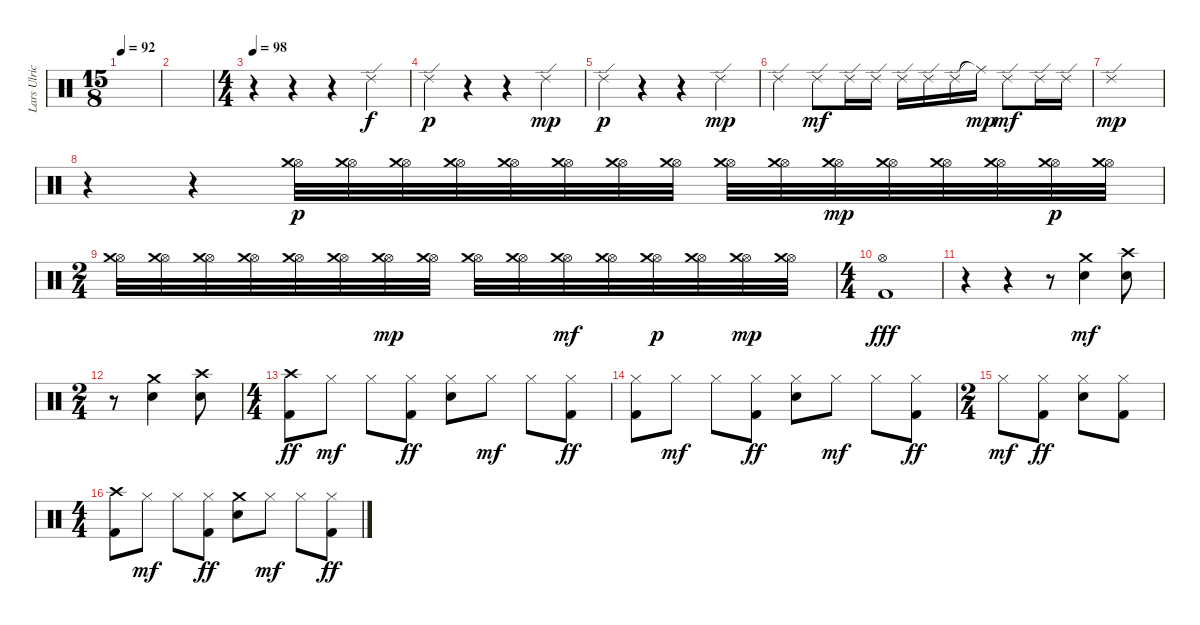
\track ("Lars Ulrich" "Lars Ulric") {instrument percussion}
\staff {score}
\articulation defaults
\ts (15 8)
\tempo 92
\clef neutral
\ks c
|
|
\ts (4 4)
\tempo 98
r.4 r.4 r.4 "Ride (edge) 2".4 |
"Ride (edge) 2".4{dy p} r.4 r.4 "Ride (edge) 2".4{dy mp} |
"Ride (edge) 2".4{dy p} r.4 r.4 "Ride (edge) 2".4{dy mp} |
"Ride (edge) 2".4 "Ride (edge) 2".8{dy mf} "Ride (edge) 2".16 "Ride (edge) 2".16 "Ride (edge) 2".16 "Ride (edge) 2".16 "Ride (edge) 2".16 "Ride (middle)"{t}.16{dy mp} "Ride (edge) 2".8{dy mf} "Ride (edge) 2".16 "Ride (edge) 2".16 |
"Ride (edge) 2".1{dy mp} |
r.4 r.4 ("Hi-Hat (open)" "Crash medium (hit)").32{dy p} ("Hi-Hat (open)" "Crash medium (hit)").32 ("Hi-Hat (open)" "Crash medium (hit)").32 ("Hi-Hat (open)" "Crash medium (hit)").32 ("Hi-Hat (open)" "Crash medium (hit)").32 ("Hi-Hat (open)" "Crash medium (hit)").32 ("Hi-Hat (open)" "Crash medium (hit)").32 ("Hi-Hat (open)" "Crash medium (hit)").32 ("Hi-Hat (open)" "Crash medium (hit)").32 ("Hi-Hat (open)" "Crash medium (hit)").32 ("Hi-Hat (open)" "Crash medium (hit)").32{dy mp} ("Hi-Hat (open)" "Crash medium (hit)").32 ("Hi-Hat (open)" "Crash medium (hit)").32 ("Hi-Hat (open)" "Crash medium (hit)").32 ("Hi-Hat (open)" "Crash medium (hit)").32{dy p} ("Hi-Hat (open)" "Crash medium (hit)").32 |
\ts (2 4)
("Hi-Hat (open)" "Crash medium (hit)").32 ("Hi-Hat (open)" "Crash medium (hit)").32 ("Hi-Hat (open)" "Crash medium (hit)").32 ("Hi-Hat (open)" "Crash medium (hit)").32 ("Hi-Hat (open)" "Crash medium (hit)").32 ("Hi-Hat (open)" "Crash medium (hit)").32 ("Hi-Hat (open)" "Crash medium (hit)").32{dy mp} ("Hi-Hat (open)" "Crash medium (hit)").32 ("Hi-Hat (open)" "Crash medium (hit)").32 ("Hi-Hat (open)" "Crash medium (hit)").32 ("Hi-Hat (open)" "Crash medium (hit)").32{dy mf} ("Hi-Hat (open)" "Crash medium (hit)").32 ("Hi-Hat (open)" "Crash medium (hit)").32{dy p} ("Hi-Hat (open)" "Crash medium (hit)").32 ("Hi-Hat (open)" "Crash medium (hit)").32{dy mp} ("Hi-Hat (open)" "Crash medium (hit)").32 |
\ts (4 4)
("Hi-Hat (open)" "Kick (hit) 2").1{dy fff} |
r.4 r.4 r.8 ("Crash medium (hit)" "Snare (hit) 2").4{dy mf} ("Crash high (hit)" "Snare (hit) 2").8 |
\ts (2 4)
r.8 ("Crash medium (hit)" "Snare (hit) 2").4 ("Crash high (hit)" "Snare (hit) 2").8 |
\ts (4 4)
("Crash high (hit)" "Kick (hit) 2").8{dy ff} "Hi-Hat (closed)".8{dy mf} "Hi-Hat (closed)".8 ("Hi-Hat (closed)" "Kick (hit) 2").8{dy ff} ("Hi-Hat (closed)" "Snare (hit) 2").8 "Hi-Hat (closed)".8{dy mf} "Hi-Hat (closed)".8 ("Hi-Hat (closed)" "Kick (hit) 2").8{dy ff} |
("Hi-Hat (closed)" "Kick (hit) 2").8 "Hi-Hat (closed)".8{dy mf} "Hi-Hat (closed)".8 ("Hi-Hat (closed)" "Kick (hit) 2").8{dy ff} ("Hi-Hat (closed)" "Snare (hit) 2").8 "Hi-Hat (closed)".8{dy mf} "Hi-Hat (closed)".8 ("Hi-Hat (closed)" "Kick (hit) 2").8{dy ff} |
\ts (2 4)
"Hi-Hat (closed)".8{dy mf} ("Hi-Hat (closed)" "Kick (hit) 2").8{dy ff} ("Hi-Hat (closed)" "Snare (hit) 2").8 ("Hi-Hat (closed)" "Kick (hit) 2").8 |
\ts (4 4)
("Crash high (hit)" "Kick (hit) 2").8 "Hi-Hat (closed)".8{dy mf} "Hi-Hat (closed)".8 ("Hi-Hat (closed)" "Kick (hit) 2").8{dy ff} ("Crash medium (hit)" "Snare (hit) 2").8 "Hi-Hat (closed)".8{dy mf} "Hi-Hat (closed)".8 ("Hi-Hat (closed)" "Kick (hit) 2").8{dy ff}
